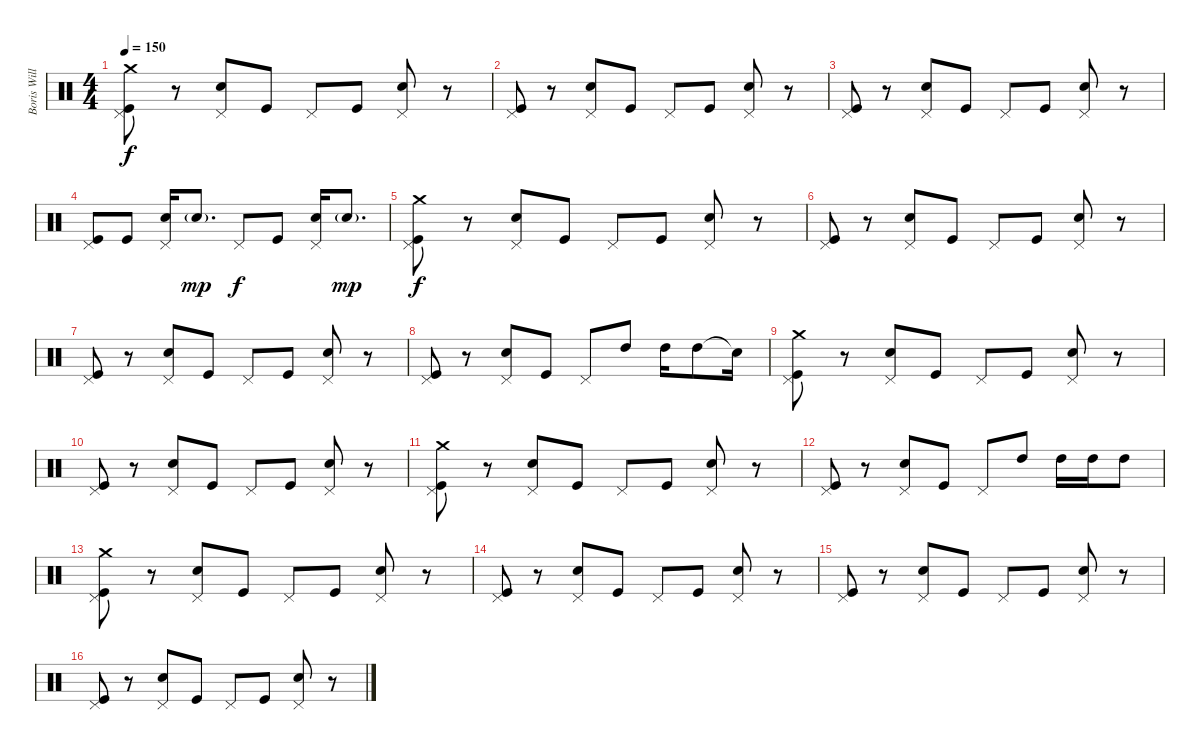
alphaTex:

\track ("Boris Williams" "Boris Will") {instrument percussion}
\staff {score}
\articulation defaults
\ts (4 4)
\tempo 150
\clef neutral
\ks c
("Pedal Hi-Hat (hit)" "Kick (hit)" "Crash medium (hit)").8{dy f} r.8 ("Pedal Hi-Hat (hit)" "Snare (hit) 2").8 "Kick (hit)".8 "Pedal Hi-Hat (hit)".8 "Kick (hit)".8 ("Pedal Hi-Hat (hit)" "Snare (hit) 2").8 r.8 |
("Pedal Hi-Hat (hit)" "Kick (hit)").8 r.8 ("Pedal Hi-Hat (hit)" "Snare (hit) 2").8 "Kick (hit)".8 "Pedal Hi-Hat (hit)".8 "Kick (hit)".8 ("Pedal Hi-Hat (hit)" "Snare (hit) 2").8 r.8 |
("Pedal Hi-Hat (hit)" "Kick (hit)").8 r.8 ("Pedal Hi-Hat (hit)" "Snare (hit) 2").8 "Kick (hit)".8 "Pedal Hi-Hat (hit)".8 "Kick (hit)".8 ("Pedal Hi-Hat (hit)" "Snare (hit) 2").8 r.8 |
("Pedal Hi-Hat (hit)" "Kick (hit)").8 "Kick (hit)".8 ("Pedal Hi-Hat (hit)" "Snare (hit) 2").16 "Snare (hit) 2"{g}.8{d dy mp} "Pedal Hi-Hat (hit)".8{dy f} "Kick (hit)".8 ("Pedal Hi-Hat (hit)" "Snare (hit) 2").16 "Snare (hit) 2"{g}.8{d dy mp} |
("Pedal Hi-Hat (hit)" "Kick (hit)" "Crash medium (hit)").8{dy f} r.8 ("Pedal Hi-Hat (hit)" "Snare (hit) 2").8 "Kick (hit)".8 "Pedal Hi-Hat (hit)".8 "Kick (hit)".8 ("Pedal Hi-Hat (hit)" "Snare (hit) 2").8 r.8 |
("Pedal Hi-Hat (hit)" "Kick (hit)").8 r.8 ("Pedal Hi-Hat (hit)" "Snare (hit) 2").8 "Kick (hit)".8 "Pedal Hi-Hat (hit)".8 "Kick (hit)".8 ("Pedal Hi-Hat (hit)" "Snare (hit) 2").8 r.8 |
("Pedal Hi-Hat (hit)" "Kick (hit)").8 r.8 ("Pedal Hi-Hat (hit)" "Snare (hit) 2").8 "Kick (hit)".8 "Pedal Hi-Hat (hit)".8 "Kick (hit)".8 ("Pedal Hi-Hat (hit)" "Snare (hit) 2").8 r.8 |
("Pedal Hi-Hat (hit)" "Kick (hit)").8 r.8 ("Pedal Hi-Hat (hit)" "Snare (hit) 2").8 "Kick (hit)".8 "Pedal Hi-Hat (hit)".8 "High Tom (hit)".8 "High Tom (hit)".16 "High Tom (hit)".8 "Snare (hit)"{t}.16 |
("Pedal Hi-Hat (hit)" "Kick (hit)" "Crash medium (hit)").8 r.8 ("Pedal Hi-Hat (hit)" "Snare (hit) 2").8 "Kick (hit)".8 "Pedal Hi-Hat (hit)".8 "Kick (hit)".8 ("Pedal Hi-Hat (hit)" "Snare (hit) 2").8 r.8 |
("Pedal Hi-Hat (hit)" "Kick (hit)").8 r.8 ("Pedal Hi-Hat (hit)" "Snare (hit) 2").8 "Kick (hit)".8 "Pedal Hi-Hat (hit)".8 "Kick (hit)".8 ("Pedal Hi-Hat (hit)" "Snare (hit) 2").8 r.8 |
("Pedal Hi-Hat (hit)" "Kick (hit)" "Crash medium (hit)").8 r.8 ("Pedal Hi-Hat (hit)" "Snare (hit) 2").8 "Kick (hit)".8 "Pedal Hi-Hat (hit)".8 "Kick (hit)".8 ("Pedal Hi-Hat (hit)" "Snare (hit) 2").8 r.8 |
("Pedal Hi-Hat (hit)" "Kick (hit)").8 r.8 ("Pedal Hi-Hat (hit)" "Snare (hit) 2").8 "Kick (hit)".8 "Pedal Hi-Hat (hit)".8 "High Tom (hit)".8 "High Tom (hit)".16 "High Tom (hit)".16 "High Tom (hit)".8 |
("Pedal Hi-Hat (hit)" "Kick (hit)" "Crash medium (hit)").8 r.8 ("Pedal Hi-Hat (hit)" "Snare (hit) 2").8 "Kick (hit)".8 "Pedal Hi-Hat (hit)".8 "Kick (hit)".8 ("Pedal Hi-Hat (hit)" "Snare (hit) 2").8 r.8 |
("Pedal Hi-Hat (hit)" "Kick (hit)").8 r.8 ("Pedal Hi-Hat (hit)" "Snare (hit) 2").8 "Kick (hit)".8 "Pedal Hi-Hat (hit)".8 "Kick (hit)".8 ("Pedal Hi-Hat (hit)" "Snare (hit) 2").8 r.8 |
("Pedal Hi-Hat (hit)" "Kick (hit)").8 r.8 ("Pedal Hi-Hat (hit)" "Snare (hit) 2").8 "Kick (hit)".8 "Pedal Hi-Hat (hit)".8 "Kick (hit)".8 ("Pedal Hi-Hat (hit)" "Snare (hit) 2").8 r.8 |
("Pedal Hi-Hat (hit)" "Kick (hit)").8 r.8 ("Pedal Hi-Hat (hit)" "Snare (hit) 2").8 "Kick (hit)".8 "Pedal Hi-Hat (hit)".8 "Kick (hit)".8 ("Pedal Hi-Hat (hit)" "Snare (hit) 2").8 r.8
